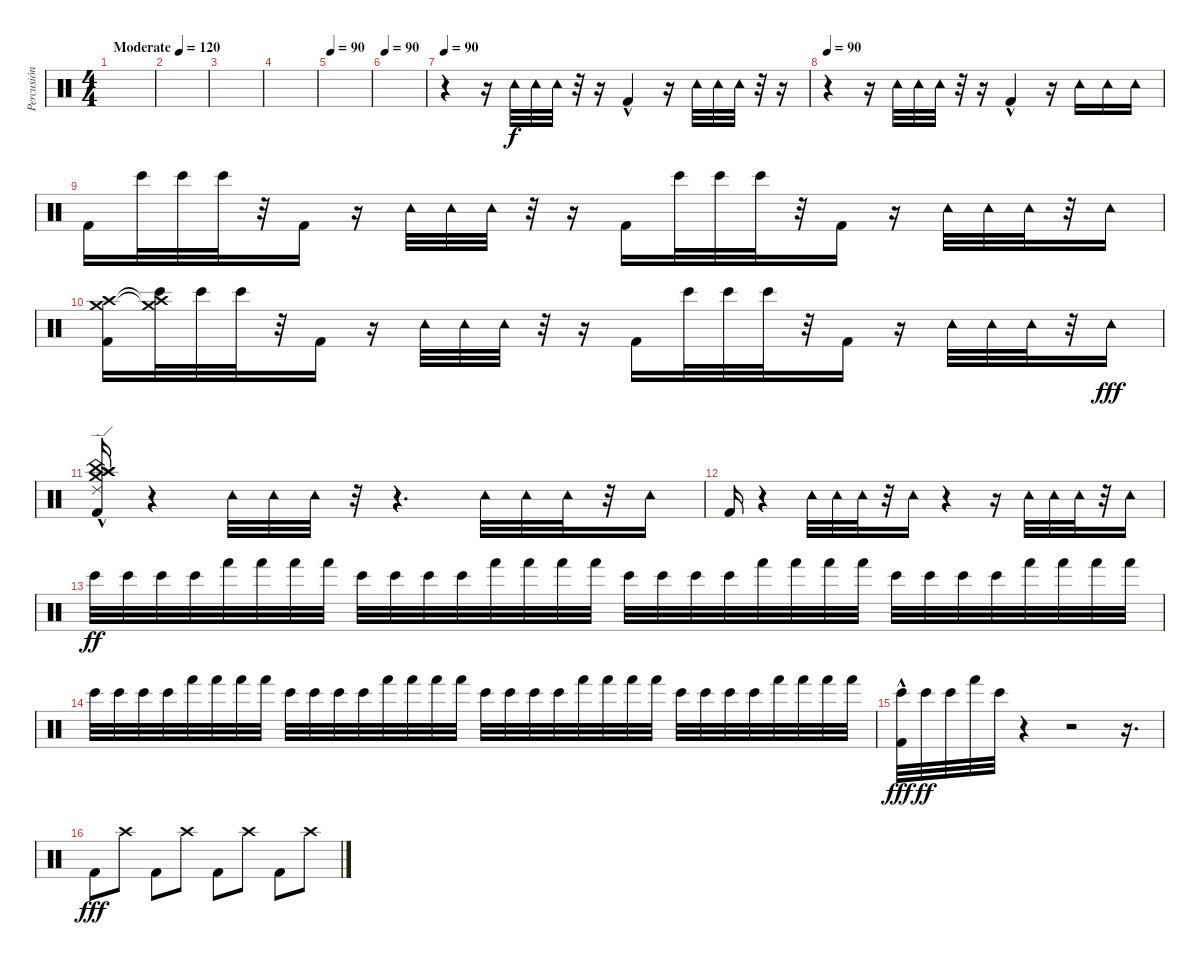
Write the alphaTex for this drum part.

\track ("Percusión" "Percusión") {instrument percussion}
\staff {score}
\articulation defaults
\ts (4 4)
\tempo (120 "Moderate")
\clef neutral
\ks c
|
|
|
|
\tempo 90
|
\tempo 90
|
\tempo 90
r.4 r.16 "Tambourine (hit)".32 "Tambourine (hit)".32 "Tambourine (hit)".32 r.32 r.16 "Kick (hit) 2"{hac}.4 r.16 "Tambourine (hit)".32 "Tambourine (hit)".32 "Tambourine (hit)".32 r.32 r.16 |
\tempo 90
r.4 r.16 "Tambourine (hit)".32 "Tambourine (hit)".32 "Tambourine (hit)".32 r.32 r.16 "Kick (hit) 2"{hac}.4 r.16 "Tambourine (hit)".16 "Tambourine (hit)".16 "Tambourine (hit)".16 |
"Kick (hit) 2".16{dy f} "Bongo High (hit)".32 "Bongo High (hit)".32 "Bongo High (hit)".32 r.32 "Kick (hit) 2".16 r.16 "Tambourine (hit)".32 "Tambourine (hit)".32 "Tambourine (hit)".32 r.32 r.16 "Kick (hit) 2".16 "Bongo High (hit)".32 "Bongo High (hit)".32 "Bongo High (hit)".32 r.32 "Kick (hit) 2".16 r.16 "Tambourine (hit)".32 "Tambourine (hit)".32 "Tambourine (hit)".32 r.32 "Tambourine (hit)".16 |
("Kick (hit) 2" "Crash high (hit)" "Crash medium (hit)").16 ("Bongo High (hit)" "Crash high (hit)"{t} "Crash medium (hit)"{t}).32 "Bongo High (hit)".32 "Bongo High (hit)".32 r.32 "Kick (hit) 2".16 r.16 "Tambourine (hit)".32 "Tambourine (hit)".32 "Tambourine (hit)".32 r.32 r.16 "Kick (hit) 2".16 "Bongo High (hit)".32 "Bongo High (hit)".32 "Bongo High (hit)".32 r.32 "Kick (hit) 2".16 r.16 "Tambourine (hit)".32 "Tambourine (hit)".32 "Tambourine (hit)".32 r.32 "Tambourine (hit)".16{dy fff} |
("China (hit)"{hac} "Crash high (hit)"{hac} "Kick (hit) 2" "Crash medium (hit)"{hac} "Ride (edge) 2"{hac} "Crash high (hit)"{hac}).16 r.4 "Tambourine (hit)".32 "Tambourine (hit)".32 "Tambourine (hit)".32 r.32 r.4{d} "Tambourine (hit)".32 "Tambourine (hit)".32 "Tambourine (hit)".32 r.32 "Tambourine (hit)".16 |
"Kick (hit) 2".16 r.4 "Tambourine (hit)".32 "Tambourine (hit)".32 "Tambourine (hit)".32 r.32 "Tambourine (hit)".16 r.4 r.16 "Tambourine (hit)".32 "Tambourine (hit)".32 "Tambourine (hit)".32 r.32 "Tambourine (hit)".16 |
"Bongo High (hit)".32{dy ff} "Bongo High (hit)".32 "Bongo High (hit)".32 "Bongo High (hit)".32 "Hand (hit)".32 "Hand (hit)".32 "Hand (hit)".32 "Hand (hit)".32 "Bongo High (hit)".32 "Bongo High (hit)".32 "Bongo High (hit)".32 "Bongo High (hit)".32 "Hand (hit)".32 "Hand (hit)".32 "Hand (hit)".32 "Hand (hit)".32 "Bongo High (hit)".32 "Bongo High (hit)".32 "Bongo High (hit)".32 "Bongo High (hit)".32 "Hand (hit)".32 "Hand (hit)".32 "Hand (hit)".32 "Hand (hit)".32 "Bongo High (hit)".32 "Bongo High (hit)".32 "Bongo High (hit)".32 "Bongo High (hit)".32 "Hand (hit)".32 "Hand (hit)".32 "Hand (hit)".32 "Hand (hit)".32 |
"Bongo High (hit)".32 "Bongo High (hit)".32 "Bongo High (hit)".32 "Bongo High (hit)".32 "Hand (hit)".32 "Hand (hit)".32 "Hand (hit)".32 "Hand (hit)".32 "Bongo High (hit)".32 "Bongo High (hit)".32 "Bongo High (hit)".32 "Bongo High (hit)".32 "Hand (hit)".32 "Hand (hit)".32 "Hand (hit)".32 "Hand (hit)".32 "Bongo High (hit)".32 "Bongo High (hit)".32 "Bongo High (hit)".32 "Bongo High (hit)".32 "Hand (hit)".32 "Hand (hit)".32 "Hand (hit)".32 "Hand (hit)".32 "Bongo High (hit)".32 "Bongo High (hit)".32 "Bongo High (hit)".32 "Bongo High (hit)".32 "Hand (hit)".32 "Hand (hit)".32 "Hand (hit)".32 "Hand (hit)".32 |
("Bongo High (hit)" "Kick (hit) 2"{hac}).32{dy fff} "Bongo High (hit)".32{dy ff} "Bongo High (hit)".32 "Hand (hit)".32 "Bongo High (hit)".32 r.4 r.2 r.16{d} |
"Kick (hit) 2".8{dy fff} "Crash high (hit)".8 "Kick (hit) 2".8 "Crash high (hit)".8 "Kick (hit) 2".8 "Crash high (hit)".8 "Kick (hit) 2".8 "Crash high (hit)".8
